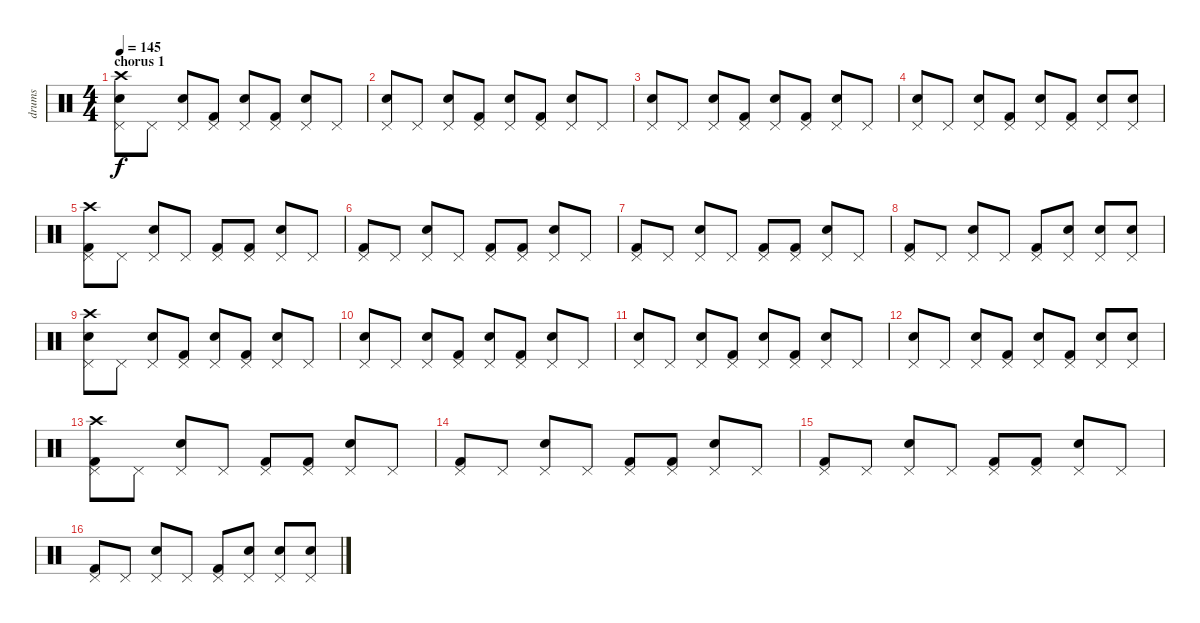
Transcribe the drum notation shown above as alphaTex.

\track ("drums" "drums") {instrument percussion}
\staff {score}
\articulation defaults
\ts (4 4)
\section ("" "chorus 1")
\tempo 145
\clef neutral
\ks c
("Crash high (hit)" "Snare (hit) 2" "Pedal Hi-Hat (hit)").8{dy f} "Pedal Hi-Hat (hit)".8 ("Snare (hit) 2" "Pedal Hi-Hat (hit)").8 ("Kick (hit) 2" "Pedal Hi-Hat (hit)").8 ("Snare (hit) 2" "Pedal Hi-Hat (hit)").8 ("Kick (hit) 2" "Pedal Hi-Hat (hit)").8 ("Snare (hit) 2" "Pedal Hi-Hat (hit)").8 "Pedal Hi-Hat (hit)".8 |
("Snare (hit) 2" "Pedal Hi-Hat (hit)").8 "Pedal Hi-Hat (hit)".8 ("Snare (hit) 2" "Pedal Hi-Hat (hit)").8 ("Kick (hit) 2" "Pedal Hi-Hat (hit)").8 ("Snare (hit) 2" "Pedal Hi-Hat (hit)").8 ("Kick (hit) 2" "Pedal Hi-Hat (hit)").8 ("Snare (hit) 2" "Pedal Hi-Hat (hit)").8 "Pedal Hi-Hat (hit)".8 |
("Snare (hit) 2" "Pedal Hi-Hat (hit)").8 "Pedal Hi-Hat (hit)".8 ("Snare (hit) 2" "Pedal Hi-Hat (hit)").8 ("Kick (hit) 2" "Pedal Hi-Hat (hit)").8 ("Snare (hit) 2" "Pedal Hi-Hat (hit)").8 ("Kick (hit) 2" "Pedal Hi-Hat (hit)").8 ("Snare (hit) 2" "Pedal Hi-Hat (hit)").8 "Pedal Hi-Hat (hit)".8 |
("Snare (hit) 2" "Pedal Hi-Hat (hit)").8 "Pedal Hi-Hat (hit)".8 ("Snare (hit) 2" "Pedal Hi-Hat (hit)").8 ("Kick (hit) 2" "Pedal Hi-Hat (hit)").8 ("Snare (hit) 2" "Pedal Hi-Hat (hit)").8 ("Kick (hit) 2" "Pedal Hi-Hat (hit)").8 ("Snare (hit) 2" "Pedal Hi-Hat (hit)").8 ("Snare (hit) 2" "Pedal Hi-Hat (hit)").8 |
("Kick (hit) 2" "Crash high (hit)" "Pedal Hi-Hat (hit)").8 "Pedal Hi-Hat (hit)".8 ("Snare (hit) 2" "Pedal Hi-Hat (hit)").8 "Pedal Hi-Hat (hit)".8 ("Kick (hit) 2" "Pedal Hi-Hat (hit)").8 ("Kick (hit) 2" "Pedal Hi-Hat (hit)").8 ("Snare (hit) 2" "Pedal Hi-Hat (hit)").8 "Pedal Hi-Hat (hit)".8 |
("Kick (hit) 2" "Pedal Hi-Hat (hit)").8 "Pedal Hi-Hat (hit)".8 ("Snare (hit) 2" "Pedal Hi-Hat (hit)").8 "Pedal Hi-Hat (hit)".8 ("Kick (hit) 2" "Pedal Hi-Hat (hit)").8 ("Kick (hit) 2" "Pedal Hi-Hat (hit)").8 ("Snare (hit) 2" "Pedal Hi-Hat (hit)").8 "Pedal Hi-Hat (hit)".8 |
("Kick (hit) 2" "Pedal Hi-Hat (hit)").8 "Pedal Hi-Hat (hit)".8 ("Snare (hit) 2" "Pedal Hi-Hat (hit)").8 "Pedal Hi-Hat (hit)".8 ("Kick (hit) 2" "Pedal Hi-Hat (hit)").8 ("Kick (hit) 2" "Pedal Hi-Hat (hit)").8 ("Snare (hit) 2" "Pedal Hi-Hat (hit)").8 "Pedal Hi-Hat (hit)".8 |
("Kick (hit) 2" "Pedal Hi-Hat (hit)").8 "Pedal Hi-Hat (hit)".8 ("Snare (hit) 2" "Pedal Hi-Hat (hit)").8 "Pedal Hi-Hat (hit)".8 ("Kick (hit) 2" "Pedal Hi-Hat (hit)").8 ("Snare (hit) 2" "Pedal Hi-Hat (hit)").8 ("Snare (hit) 2" "Pedal Hi-Hat (hit)").8 ("Snare (hit) 2" "Pedal Hi-Hat (hit)").8 |
("Crash high (hit)" "Snare (hit) 2" "Pedal Hi-Hat (hit)").8 "Pedal Hi-Hat (hit)".8 ("Snare (hit) 2" "Pedal Hi-Hat (hit)").8 ("Kick (hit) 2" "Pedal Hi-Hat (hit)").8 ("Snare (hit) 2" "Pedal Hi-Hat (hit)").8 ("Kick (hit) 2" "Pedal Hi-Hat (hit)").8 ("Snare (hit) 2" "Pedal Hi-Hat (hit)").8 "Pedal Hi-Hat (hit)".8 |
("Snare (hit) 2" "Pedal Hi-Hat (hit)").8 "Pedal Hi-Hat (hit)".8 ("Snare (hit) 2" "Pedal Hi-Hat (hit)").8 ("Kick (hit) 2" "Pedal Hi-Hat (hit)").8 ("Snare (hit) 2" "Pedal Hi-Hat (hit)").8 ("Kick (hit) 2" "Pedal Hi-Hat (hit)").8 ("Snare (hit) 2" "Pedal Hi-Hat (hit)").8 "Pedal Hi-Hat (hit)".8 |
("Snare (hit) 2" "Pedal Hi-Hat (hit)").8 "Pedal Hi-Hat (hit)".8 ("Snare (hit) 2" "Pedal Hi-Hat (hit)").8 ("Kick (hit) 2" "Pedal Hi-Hat (hit)").8 ("Snare (hit) 2" "Pedal Hi-Hat (hit)").8 ("Kick (hit) 2" "Pedal Hi-Hat (hit)").8 ("Snare (hit) 2" "Pedal Hi-Hat (hit)").8 "Pedal Hi-Hat (hit)".8 |
("Snare (hit) 2" "Pedal Hi-Hat (hit)").8 "Pedal Hi-Hat (hit)".8 ("Snare (hit) 2" "Pedal Hi-Hat (hit)").8 ("Kick (hit) 2" "Pedal Hi-Hat (hit)").8 ("Snare (hit) 2" "Pedal Hi-Hat (hit)").8 ("Kick (hit) 2" "Pedal Hi-Hat (hit)").8 ("Snare (hit) 2" "Pedal Hi-Hat (hit)").8 ("Snare (hit) 2" "Pedal Hi-Hat (hit)").8 |
("Kick (hit) 2" "Crash high (hit)" "Pedal Hi-Hat (hit)").8 "Pedal Hi-Hat (hit)".8 ("Snare (hit) 2" "Pedal Hi-Hat (hit)").8 "Pedal Hi-Hat (hit)".8 ("Kick (hit) 2" "Pedal Hi-Hat (hit)").8 ("Kick (hit) 2" "Pedal Hi-Hat (hit)").8 ("Snare (hit) 2" "Pedal Hi-Hat (hit)").8 "Pedal Hi-Hat (hit)".8 |
("Kick (hit) 2" "Pedal Hi-Hat (hit)").8 "Pedal Hi-Hat (hit)".8 ("Snare (hit) 2" "Pedal Hi-Hat (hit)").8 "Pedal Hi-Hat (hit)".8 ("Kick (hit) 2" "Pedal Hi-Hat (hit)").8 ("Kick (hit) 2" "Pedal Hi-Hat (hit)").8 ("Snare (hit) 2" "Pedal Hi-Hat (hit)").8 "Pedal Hi-Hat (hit)".8 |
("Kick (hit) 2" "Pedal Hi-Hat (hit)").8 "Pedal Hi-Hat (hit)".8 ("Snare (hit) 2" "Pedal Hi-Hat (hit)").8 "Pedal Hi-Hat (hit)".8 ("Kick (hit) 2" "Pedal Hi-Hat (hit)").8 ("Kick (hit) 2" "Pedal Hi-Hat (hit)").8 ("Snare (hit) 2" "Pedal Hi-Hat (hit)").8 "Pedal Hi-Hat (hit)".8 |
("Kick (hit) 2" "Pedal Hi-Hat (hit)").8 "Pedal Hi-Hat (hit)".8 ("Snare (hit) 2" "Pedal Hi-Hat (hit)").8 "Pedal Hi-Hat (hit)".8 ("Kick (hit) 2" "Pedal Hi-Hat (hit)").8 ("Snare (hit) 2" "Pedal Hi-Hat (hit)").8 ("Snare (hit) 2" "Pedal Hi-Hat (hit)").8 ("Snare (hit) 2" "Pedal Hi-Hat (hit)").8
